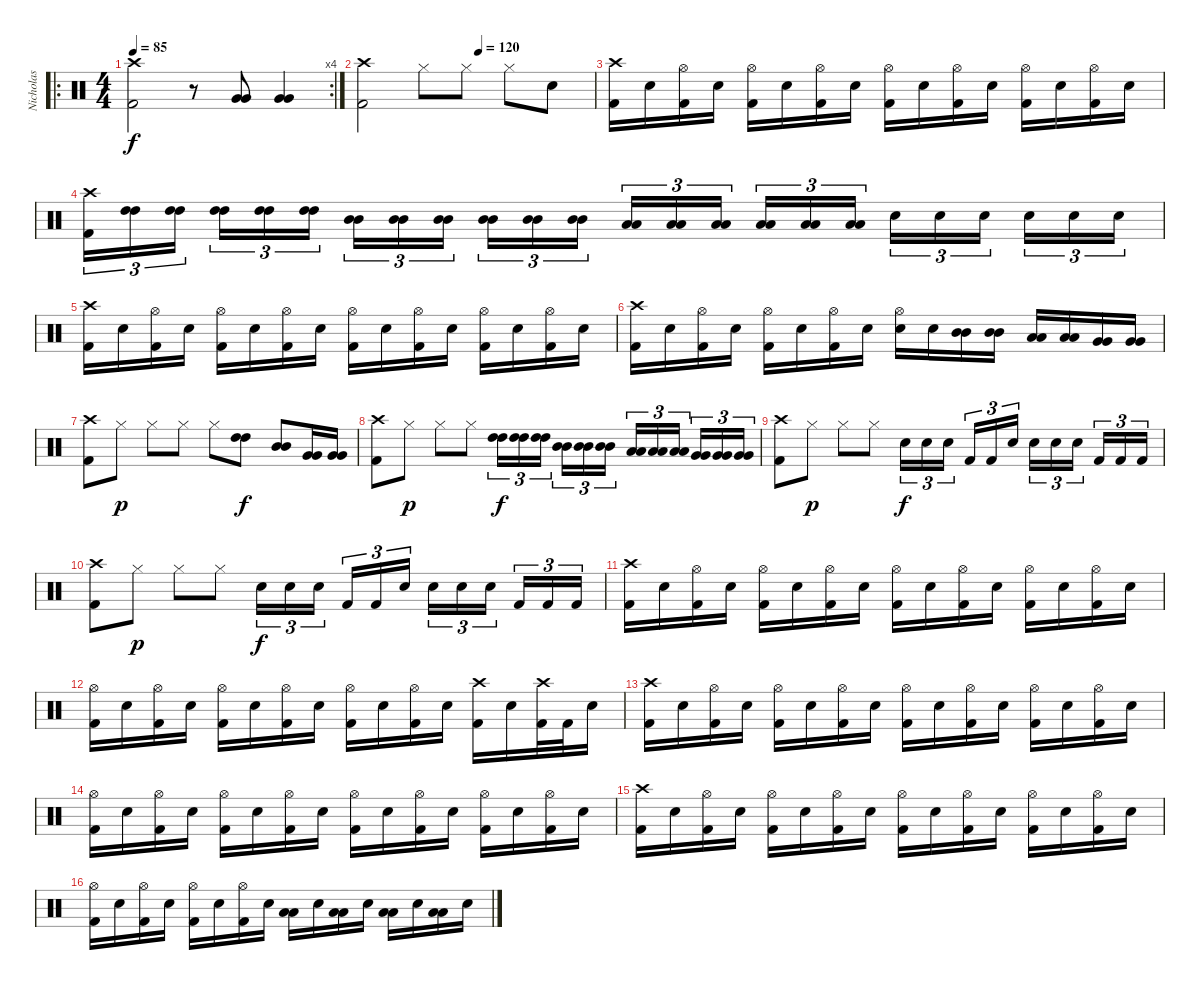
\track ("Nicholas" "Nicholas") {instrument percussion}
\staff {score}
\articulation defaults
\ro
\rc 4
\ts (4 4)
\tempo 85
\clef neutral
\ks c
("Crash high (hit)" "Kick (hit) 2").2{dy f balance 8} r.8 ("Very Low Tom (hit)" "Very Low Tom (hit)").8{balance 11} ("Very Low Tom (hit)" "Very Low Tom (hit)").4 |
\tempo (120 0.5)
("Crash high (hit)" "Kick (hit) 2").2{balance 8} "Hi-Hat (closed)".8 "Hi-Hat (closed)".8 "Hi-Hat (closed)".8 "Electric Snare (hit)".8 |
("Crash high (hit)" "Kick (hit) 2").16 "Electric Snare (hit)".16 ("Hi-Hat (open)" "Kick (hit) 2").16 "Electric Snare (hit)".16 ("Hi-Hat (open)" "Kick (hit) 2").16 "Electric Snare (hit)".16 ("Hi-Hat (open)" "Kick (hit) 2").16 "Electric Snare (hit)".16 ("Hi-Hat (open)" "Kick (hit) 2").16 "Electric Snare (hit)".16 ("Hi-Hat (open)" "Kick (hit) 2").16 "Electric Snare (hit)".16 ("Hi-Hat (open)" "Kick (hit) 2").16 "Electric Snare (hit)".16 ("Hi-Hat (open)" "Kick (hit) 2").16 "Electric Snare (hit)".16 |
("Crash high (hit)" "Kick (hit) 2").16{tu (3 2)} ("High Tom (hit)" "High Tom (hit)").16{tu (3 2) balance 10} ("High Tom (hit)" "High Tom (hit)").16{tu (3 2)} ("High Tom (hit)" "High Tom (hit)").16{tu (3 2)} ("High Tom (hit)" "High Tom (hit)").16{tu (3 2)} ("High Tom (hit)" "High Tom (hit)").16{tu (3 2)} ("Mid Tom (hit)" "Mid Tom (hit)").16{tu (3 2) balance 8} ("Mid Tom (hit)" "Mid Tom (hit)").16{tu (3 2)} ("Mid Tom (hit)" "Mid Tom (hit)").16{tu (3 2)} ("Mid Tom (hit)" "Mid Tom (hit)").16{tu (3 2)} ("Mid Tom (hit)" "Mid Tom (hit)").16{tu (3 2)} ("Mid Tom (hit)" "Mid Tom (hit)").16{tu (3 2)} ("Low Tom (hit)" "Low Tom (hit)").16{tu (3 2) balance 6} ("Low Tom (hit)" "Low Tom (hit)").16{tu (3 2)} ("Low Tom (hit)" "Low Tom (hit)").16{tu (3 2)} ("Low Tom (hit)" "Low Tom (hit)").16{tu (3 2)} ("Low Tom (hit)" "Low Tom (hit)").16{tu (3 2)} ("Low Tom (hit)" "Low Tom (hit)").16{tu (3 2)} "Electric Snare (hit)".16{tu (3 2) balance 8} "Electric Snare (hit)".16{tu (3 2)} "Electric Snare (hit)".16{tu (3 2)} "Electric Snare (hit)".16{tu (3 2)} "Electric Snare (hit)".16{tu (3 2)} "Electric Snare (hit)".16{tu (3 2)} |
("Crash high (hit)" "Kick (hit) 2").16 "Electric Snare (hit)".16 ("Hi-Hat (open)" "Kick (hit) 2").16 "Electric Snare (hit)".16 ("Hi-Hat (open)" "Kick (hit) 2").16 "Electric Snare (hit)".16 ("Hi-Hat (open)" "Kick (hit) 2").16 "Electric Snare (hit)".16 ("Hi-Hat (open)" "Kick (hit) 2").16 "Electric Snare (hit)".16 ("Hi-Hat (open)" "Kick (hit) 2").16 "Electric Snare (hit)".16 ("Hi-Hat (open)" "Kick (hit) 2").16 "Electric Snare (hit)".16 ("Hi-Hat (open)" "Kick (hit) 2").16 "Electric Snare (hit)".16 |
("Crash high (hit)" "Kick (hit) 2").16 "Electric Snare (hit)".16 ("Hi-Hat (open)" "Kick (hit) 2").16 "Electric Snare (hit)".16 ("Hi-Hat (open)" "Kick (hit) 2").16 "Electric Snare (hit)".16 ("Hi-Hat (open)" "Kick (hit) 2").16 "Electric Snare (hit)".16 ("Hi-Hat (open)" "Electric Snare (hit)").16 "Electric Snare (hit)".16 ("Mid Tom (hit)" "Mid Tom (hit)").16{balance 10} ("Mid Tom (hit)" "Mid Tom (hit)").16 ("Low Tom (hit)" "Low Tom (hit)").16{balance 8} ("Low Tom (hit)" "Low Tom (hit)").16 ("Very Low Tom (hit)" "Very Low Tom (hit)").16{balance 6} ("Very Low Tom (hit)" "Very Low Tom (hit)").16 |
("Crash high (hit)" "Kick (hit) 2").8{balance 8} "Hi-Hat (closed)".8{dy p} "Hi-Hat (closed)".8 "Hi-Hat (closed)".8 "Hi-Hat (closed)".8 ("High Tom (hit)" "High Tom (hit)").8{dy f balance 11} ("Mid Tom (hit)" "Mid Tom (hit)").8{balance 8} ("Very Low Tom (hit)" "Very Low Tom (hit)").16{balance 6} ("Very Low Tom (hit)" "Very Low Tom (hit)").16 |
("Crash high (hit)" "Kick (hit) 2").8{balance 8} "Hi-Hat (closed)".8{dy p} "Hi-Hat (closed)".8 "Hi-Hat (closed)".8 ("High Tom (hit)" "High Tom (hit)").16{tu (3 2) dy f balance 11} ("High Tom (hit)" "High Tom (hit)").16{tu (3 2)} ("High Tom (hit)" "High Tom (hit)").16{tu (3 2)} ("Mid Tom (hit)" "Mid Tom (hit)").16{tu (3 2) balance 9} ("Mid Tom (hit)" "Mid Tom (hit)").16{tu (3 2)} ("Mid Tom (hit)" "Mid Tom (hit)").16{tu (3 2)} ("Low Tom (hit)" "Low Tom (hit)").16{tu (3 2) balance 7} ("Low Tom (hit)" "Low Tom (hit)").16{tu (3 2)} ("Low Tom (hit)" "Low Tom (hit)").16{tu (3 2)} ("Very Low Tom (hit)" "Very Low Tom (hit)").16{tu (3 2) balance 6} ("Very Low Tom (hit)" "Very Low Tom (hit)").16{tu (3 2)} ("Very Low Tom (hit)" "Very Low Tom (hit)").16{tu (3 2)} |
("Crash high (hit)" "Kick (hit) 2").8{balance 8} "Hi-Hat (closed)".8{dy p} "Hi-Hat (closed)".8 "Hi-Hat (closed)".8 "Electric Snare (hit)".16{tu (3 2) dy f} "Electric Snare (hit)".16{tu (3 2)} "Electric Snare (hit)".16{tu (3 2)} "Kick (hit) 2".16{tu (3 2)} "Kick (hit) 2".16{tu (3 2)} "Electric Snare (hit)".16{tu (3 2)} "Electric Snare (hit)".16{tu (3 2)} "Electric Snare (hit)".16{tu (3 2)} "Electric Snare (hit)".16{tu (3 2)} "Kick (hit) 2".16{tu (3 2)} "Kick (hit) 2".16{tu (3 2)} "Kick (hit) 2".16{tu (3 2)} |
("Crash high (hit)" "Kick (hit) 2").8{balance 8} "Hi-Hat (closed)".8{dy p} "Hi-Hat (closed)".8 "Hi-Hat (closed)".8 "Electric Snare (hit)".16{tu (3 2) dy f} "Electric Snare (hit)".16{tu (3 2)} "Electric Snare (hit)".16{tu (3 2)} "Kick (hit) 2".16{tu (3 2)} "Kick (hit) 2".16{tu (3 2)} "Electric Snare (hit)".16{tu (3 2)} "Electric Snare (hit)".16{tu (3 2)} "Electric Snare (hit)".16{tu (3 2)} "Electric Snare (hit)".16{tu (3 2)} "Kick (hit) 2".16{tu (3 2)} "Kick (hit) 2".16{tu (3 2)} "Kick (hit) 2".16{tu (3 2)} |
("Crash high (hit)" "Kick (hit) 2").16 "Electric Snare (hit)".16 ("Hi-Hat (open)" "Kick (hit) 2").16 "Electric Snare (hit)".16 ("Hi-Hat (open)" "Kick (hit) 2").16 "Electric Snare (hit)".16 ("Hi-Hat (open)" "Kick (hit) 2").16 "Electric Snare (hit)".16 ("Hi-Hat (open)" "Kick (hit) 2").16 "Electric Snare (hit)".16 ("Hi-Hat (open)" "Kick (hit) 2").16 "Electric Snare (hit)".16 ("Hi-Hat (open)" "Kick (hit) 2").16 "Electric Snare (hit)".16 ("Hi-Hat (open)" "Kick (hit) 2").16 "Electric Snare (hit)".16 |
("Hi-Hat (open)" "Kick (hit) 2").16 "Electric Snare (hit)".16 ("Hi-Hat (open)" "Kick (hit) 2").16 "Electric Snare (hit)".16 ("Hi-Hat (open)" "Kick (hit) 2").16 "Electric Snare (hit)".16 ("Hi-Hat (open)" "Kick (hit) 2").16 "Electric Snare (hit)".16 ("Hi-Hat (open)" "Kick (hit) 2").16 "Electric Snare (hit)".16 ("Hi-Hat (open)" "Kick (hit) 2").16 "Electric Snare (hit)".16 ("Crash high (hit)" "Kick (hit) 2").16 "Electric Snare (hit)".16 ("Crash high (hit)" "Kick (hit) 2").32 "Kick (hit) 2".32 "Electric Snare (hit)".16 |
("Crash high (hit)" "Kick (hit) 2").16 "Electric Snare (hit)".16 ("Hi-Hat (open)" "Kick (hit) 2").16 "Electric Snare (hit)".16 ("Hi-Hat (open)" "Kick (hit) 2").16 "Electric Snare (hit)".16 ("Hi-Hat (open)" "Kick (hit) 2").16 "Electric Snare (hit)".16 ("Hi-Hat (open)" "Kick (hit) 2").16 "Electric Snare (hit)".16 ("Hi-Hat (open)" "Kick (hit) 2").16 "Electric Snare (hit)".16 ("Hi-Hat (open)" "Kick (hit) 2").16 "Electric Snare (hit)".16 ("Hi-Hat (open)" "Kick (hit) 2").16 "Electric Snare (hit)".16 |
("Hi-Hat (open)" "Kick (hit) 2").16 "Electric Snare (hit)".16 ("Hi-Hat (open)" "Kick (hit) 2").16 "Electric Snare (hit)".16 ("Hi-Hat (open)" "Kick (hit) 2").16 "Electric Snare (hit)".16 ("Hi-Hat (open)" "Kick (hit) 2").16 "Electric Snare (hit)".16 ("Hi-Hat (open)" "Kick (hit) 2").16 "Electric Snare (hit)".16 ("Hi-Hat (open)" "Kick (hit) 2").16 "Electric Snare (hit)".16 ("Hi-Hat (open)" "Kick (hit) 2").16 "Electric Snare (hit)".16 ("Hi-Hat (open)" "Kick (hit) 2").16 "Electric Snare (hit)".16 |
("Crash high (hit)" "Kick (hit) 2").16 "Electric Snare (hit)".16 ("Hi-Hat (open)" "Kick (hit) 2").16 "Electric Snare (hit)".16 ("Hi-Hat (open)" "Kick (hit) 2").16 "Electric Snare (hit)".16 ("Hi-Hat (open)" "Kick (hit) 2").16 "Electric Snare (hit)".16 ("Hi-Hat (open)" "Kick (hit) 2").16 "Electric Snare (hit)".16 ("Hi-Hat (open)" "Kick (hit) 2").16 "Electric Snare (hit)".16 ("Hi-Hat (open)" "Kick (hit) 2").16 "Electric Snare (hit)".16 ("Hi-Hat (open)" "Kick (hit) 2").16 "Electric Snare (hit)".16 |
("Hi-Hat (open)" "Kick (hit) 2").16 "Electric Snare (hit)".16 ("Hi-Hat (open)" "Kick (hit) 2").16 "Electric Snare (hit)".16 ("Hi-Hat (open)" "Kick (hit) 2").16 "Electric Snare (hit)".16 ("Hi-Hat (open)" "Kick (hit) 2").16 "Electric Snare (hit)".16 ("Low Tom (hit)" "Low Tom (hit)").16{balance 10} "Electric Snare (hit)".16{balance 8} ("Low Tom (hit)" "Low Tom (hit)").16{balance 10} "Electric Snare (hit)".16{balance 8} ("Low Tom (hit)" "Low Tom (hit)").16{balance 10} "Electric Snare (hit)".16{balance 8} ("Low Tom (hit)" "Low Tom (hit)").16{balance 10} "Electric Snare (hit)".16{balance 8}
